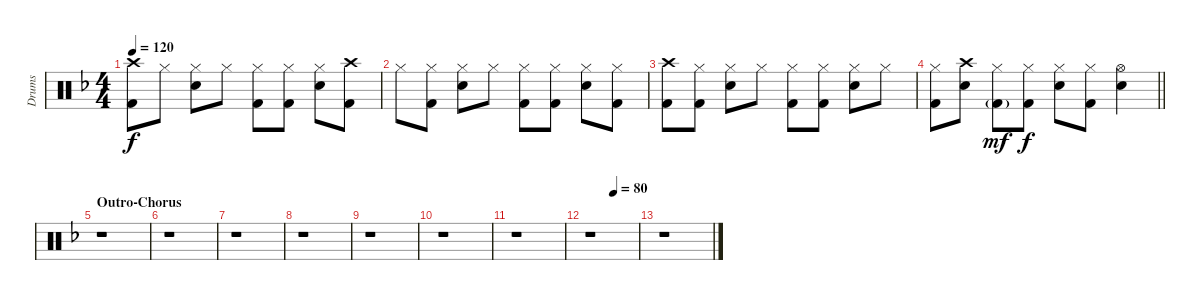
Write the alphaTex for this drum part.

\track ("Drums" "Drums") {instrument percussion}
\staff {score}
\articulation defaults
\ts (4 4)
\tempo 120
\clef neutral
\ks f
("Crash high (hit)" "Kick (hit) 2").8{dy f} "Hi-Hat (closed)".8 ("Hi-Hat (closed)" "Electric Snare (hit)").8 "Hi-Hat (closed)".8 ("Hi-Hat (closed)" "Kick (hit) 2").8 ("Hi-Hat (closed)" "Kick (hit) 2").8 ("Hi-Hat (closed)" "Electric Snare (hit)").8 ("Crash high (hit)" "Kick (hit) 2").8 |
"Hi-Hat (closed)".8 ("Hi-Hat (closed)" "Kick (hit) 2").8 ("Hi-Hat (closed)" "Electric Snare (hit)").8 "Hi-Hat (closed)".8 ("Hi-Hat (closed)" "Kick (hit) 2").8 ("Hi-Hat (closed)" "Kick (hit) 2").8 ("Hi-Hat (closed)" "Electric Snare (hit)").8 ("Hi-Hat (closed)" "Kick (hit) 2").8 |
("Crash high (hit)" "Kick (hit) 2").8 ("Hi-Hat (closed)" "Kick (hit) 2").8 ("Hi-Hat (closed)" "Electric Snare (hit)").8 "Hi-Hat (closed)".8 ("Hi-Hat (closed)" "Kick (hit) 2").8 ("Hi-Hat (closed)" "Kick (hit) 2").8 ("Hi-Hat (closed)" "Electric Snare (hit)").8 "Hi-Hat (closed)".8 |
\barLineRight lightlight
("Hi-Hat (closed)" "Kick (hit) 2").8 ("Crash high (hit)" "Electric Snare (hit)").8 ("Hi-Hat (closed)" "Kick (hit) 2"{g}).8{dy mf} ("Hi-Hat (closed)" "Kick (hit) 2").8{dy f} ("Hi-Hat (closed)" "Electric Snare (hit)").8 ("Hi-Hat (closed)" "Kick (hit) 2").8 ("Hi-Hat (open)" "Electric Snare (hit)").4 |
\section ("" "Outro-Chorus")
r.1 |
r.1 |
r.1 |
r.1 |
r.1 |
r.1 |
r.1 |
\tempo (80 0.5)
r.1 |
r.1
